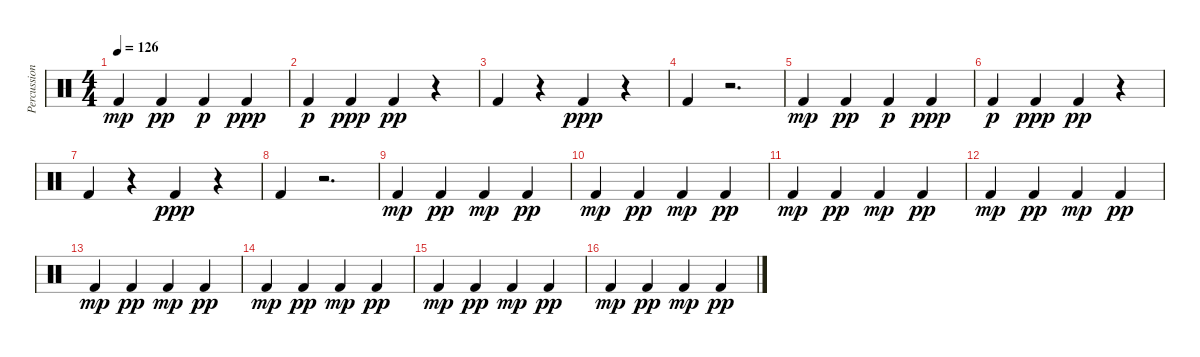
\track ("Percussion" "Percussion") {instrument percussion}
\staff {score}
\articulation defaults
\ts (4 4)
\tempo 126
\clef neutral
\ks c "Kick (hit) 2".4{dy mp} "Kick (hit) 2".4{dy pp} "Kick (hit) 2".4{dy p} "Kick (hit) 2".4{dy ppp}
|
"Kick (hit) 2".4{dy p} "Kick (hit) 2".4{dy ppp} "Kick (hit) 2".4{dy pp} r.4 |
"Kick (hit) 2".4 r.4 "Kick (hit) 2".4{dy ppp} r.4 |
"Kick (hit) 2".4 r.2{d} |
"Kick (hit) 2".4{dy mp} "Kick (hit) 2".4{dy pp} "Kick (hit) 2".4{dy p} "Kick (hit) 2".4{dy ppp} |
"Kick (hit) 2".4{dy p} "Kick (hit) 2".4{dy ppp} "Kick (hit) 2".4{dy pp} r.4 |
"Kick (hit) 2".4 r.4 "Kick (hit) 2".4{dy ppp} r.4 |
"Kick (hit) 2".4 r.2{d} |
"Kick (hit) 2".4{dy mp} "Kick (hit) 2".4{dy pp} "Kick (hit) 2".4{dy mp} "Kick (hit) 2".4{dy pp} |
"Kick (hit) 2".4{dy mp} "Kick (hit) 2".4{dy pp} "Kick (hit) 2".4{dy mp} "Kick (hit) 2".4{dy pp} |
"Kick (hit) 2".4{dy mp} "Kick (hit) 2".4{dy pp} "Kick (hit) 2".4{dy mp} "Kick (hit) 2".4{dy pp} |
"Kick (hit) 2".4{dy mp} "Kick (hit) 2".4{dy pp} "Kick (hit) 2".4{dy mp} "Kick (hit) 2".4{dy pp} |
"Kick (hit) 2".4{dy mp} "Kick (hit) 2".4{dy pp} "Kick (hit) 2".4{dy mp} "Kick (hit) 2".4{dy pp} |
"Kick (hit) 2".4{dy mp} "Kick (hit) 2".4{dy pp} "Kick (hit) 2".4{dy mp} "Kick (hit) 2".4{dy pp} |
"Kick (hit) 2".4{dy mp} "Kick (hit) 2".4{dy pp} "Kick (hit) 2".4{dy mp} "Kick (hit) 2".4{dy pp} |
"Kick (hit) 2".4{dy mp} "Kick (hit) 2".4{dy pp} "Kick (hit) 2".4{dy mp} "Kick (hit) 2".4{dy pp}
